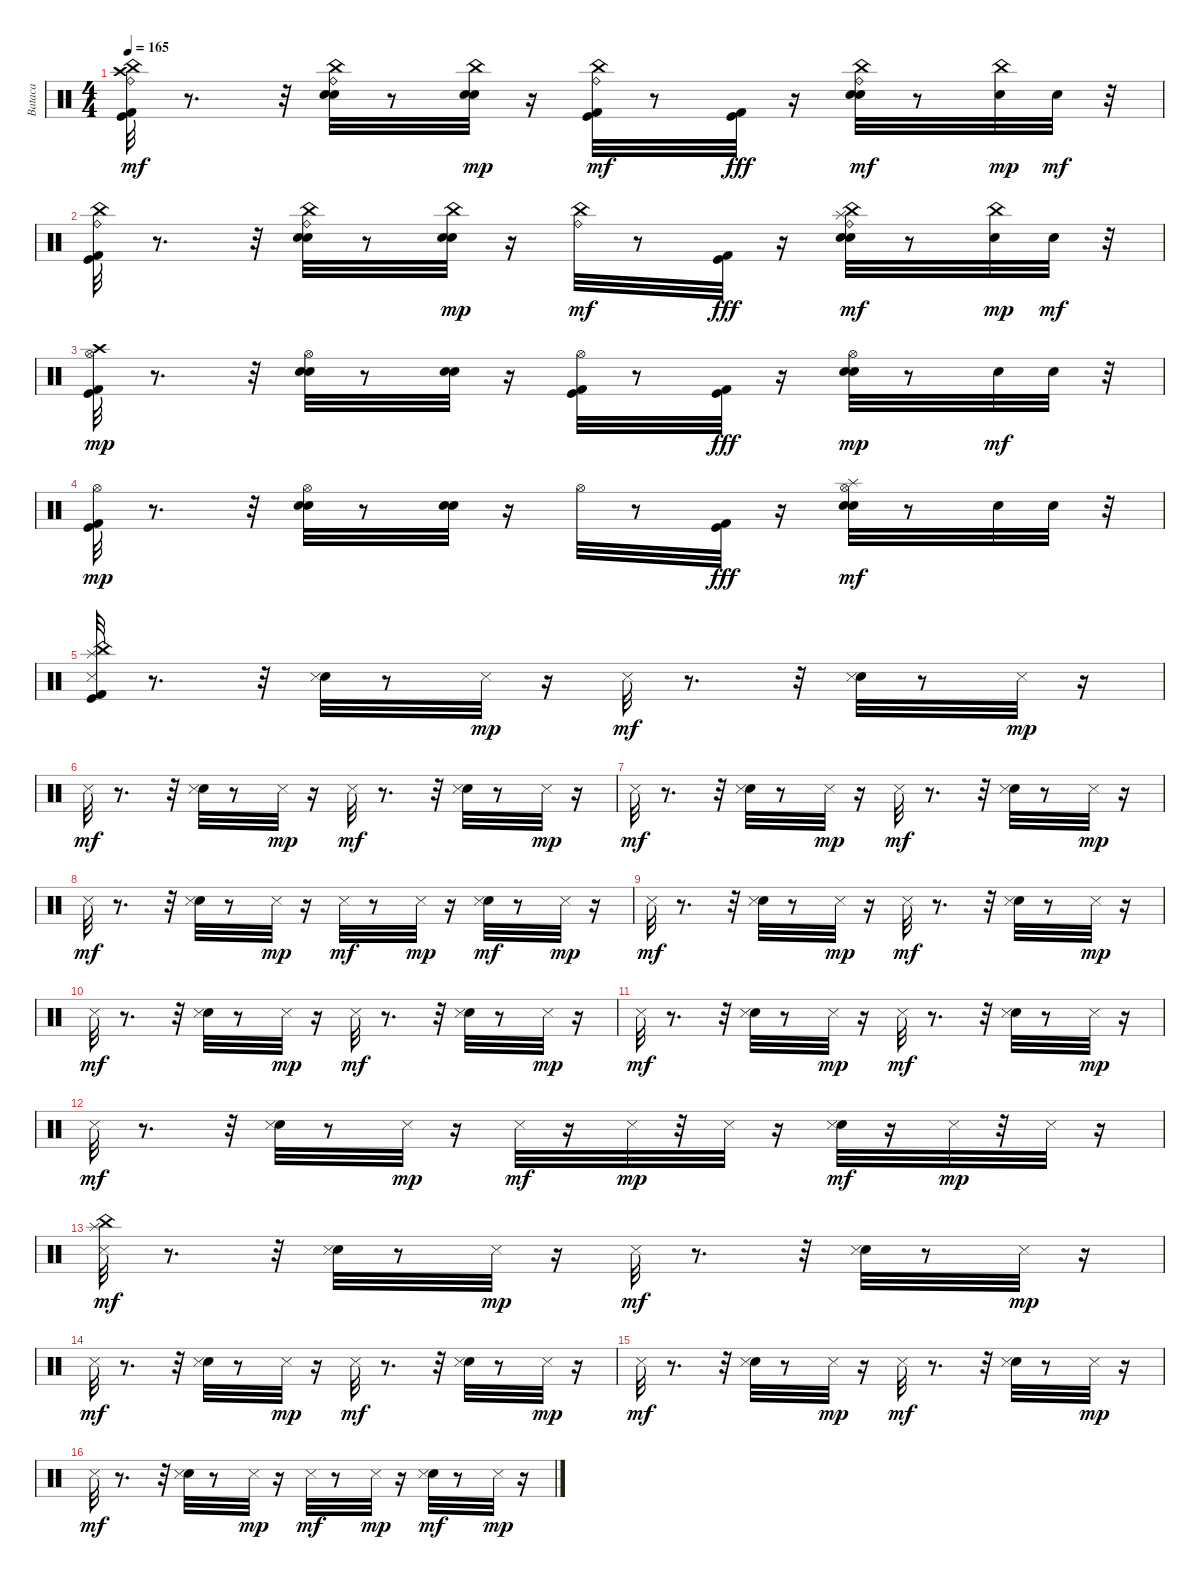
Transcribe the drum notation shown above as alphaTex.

\track ("Bataca" "Bataca") {instrument percussion}
\staff {score}
\articulation defaults
\ts (4 4)
\tempo 165
\clef neutral
\ks c
("Kick (hit) 2" "Kick (hit)" "China (hit)" "Ride (bell)" "Crash high (hit)").32{dy mf} r.8{d} r.32 ("Snare (hit) 2" "Hand Clap (hit)" "China (hit)" "Ride (bell)").32 r.8 ("Snare (hit) 2" "Hand Clap (hit)" "China (hit)").32{dy mp} r.16 ("Kick (hit) 2" "Kick (hit)" "China (hit)" "Ride (bell)").32{dy mf} r.8 ("Kick (hit) 2" "Kick (hit)").32{dy fff} r.16 ("Snare (hit) 2" "Hand Clap (hit)" "China (hit)" "Ride (bell)").32{dy mf} r.8 ("Snare (hit) 2" "China (hit)").32{dy mp} "Hand Clap (hit)".32{dy mf} r.32 |
("Kick (hit) 2" "Kick (hit)" "China (hit)" "Ride (bell)").32 r.8{d} r.32 ("Snare (hit) 2" "Hand Clap (hit)" "China (hit)" "Ride (bell)").32 r.8 ("Snare (hit) 2" "Hand Clap (hit)" "China (hit)").32{dy mp} r.16 ("China (hit)" "Ride (bell)").32{dy mf} r.8 ("Kick (hit) 2" "Kick (hit)").32{dy fff} r.16 ("Snare (hit) 2" "Hand Clap (hit)" "China (hit)" "Ride (bell)" "Splash (hit)").32{dy mf} r.8 ("Snare (hit) 2" "China (hit)").32{dy mp} "Hand Clap (hit)".32{dy mf} r.32 |
("Kick (hit) 2" "Kick (hit)" "Crash high (hit)" "Hi-Hat (open)").32{dy mp} r.8{d} r.32 ("Snare (hit) 2" "Hand Clap (hit)" "Hi-Hat (open)").32 r.8 ("Snare (hit) 2" "Hand Clap (hit)").32 r.16 ("Kick (hit) 2" "Kick (hit)" "Hi-Hat (open)").32 r.8 ("Kick (hit) 2" "Kick (hit)").32{dy fff} r.16 ("Snare (hit) 2" "Hand Clap (hit)" "Hi-Hat (open)").32{dy mp} r.8 "Snare (hit) 2".32{dy mf} "Hand Clap (hit)".32 r.32 |
("Kick (hit) 2" "Kick (hit)" "Hi-Hat (open)").32{dy mp} r.8{d} r.32 ("Snare (hit) 2" "Hand Clap (hit)" "Hi-Hat (open)").32 r.8 ("Snare (hit) 2" "Hand Clap (hit)").32 r.16 "Hi-Hat (open)".32 r.8 ("Kick (hit) 2" "Kick (hit)").32{dy fff} r.16 ("Snare (hit) 2" "Hand Clap (hit)" "Hi-Hat (open)" "Splash (hit)").32{dy mf} r.8 "Snare (hit) 2".32 "Hand Clap (hit)".32 r.32 |
("Kick (hit) 2" "Kick (hit)" "Splash (hit)" "China (hit)" "Snare (side stick) 3").32 r.8{d} r.32 ("Hand Clap (hit)" "Snare (side stick) 3").32 r.8 "Snare (side stick) 3".32{dy mp} r.16 "Snare (side stick) 3".32{dy mf} r.8{d} r.32 ("Hand Clap (hit)" "Snare (side stick) 3").32 r.8 "Snare (side stick) 3".32{dy mp} r.16 |
"Snare (side stick) 3".32{dy mf} r.8{d} r.32 ("Hand Clap (hit)" "Snare (side stick) 3").32 r.8 "Snare (side stick) 3".32{dy mp} r.16 "Snare (side stick) 3".32{dy mf} r.8{d} r.32 ("Hand Clap (hit)" "Snare (side stick) 3").32 r.8 "Snare (side stick) 3".32{dy mp} r.16 |
"Snare (side stick) 3".32{dy mf} r.8{d} r.32 ("Hand Clap (hit)" "Snare (side stick) 3").32 r.8 "Snare (side stick) 3".32{dy mp} r.16 "Snare (side stick) 3".32{dy mf} r.8{d} r.32 ("Hand Clap (hit)" "Snare (side stick) 3").32 r.8 "Snare (side stick) 3".32{dy mp} r.16 |
"Snare (side stick) 3".32{dy mf} r.8{d} r.32 ("Hand Clap (hit)" "Snare (side stick) 3").32 r.8 "Snare (side stick) 3".32{dy mp} r.16 "Snare (side stick) 3".32{dy mf} r.8 "Snare (side stick) 3".32{dy mp} r.16 ("Hand Clap (hit)" "Snare (side stick) 3").32{dy mf} r.8 "Snare (side stick) 3".32{dy mp} r.16 |
"Snare (side stick) 3".32{dy mf} r.8{d} r.32 ("Hand Clap (hit)" "Snare (side stick) 3").32 r.8 "Snare (side stick) 3".32{dy mp} r.16 "Snare (side stick) 3".32{dy mf} r.8{d} r.32 ("Hand Clap (hit)" "Snare (side stick) 3").32 r.8 "Snare (side stick) 3".32{dy mp} r.16 |
"Snare (side stick) 3".32{dy mf} r.8{d} r.32 ("Hand Clap (hit)" "Snare (side stick) 3").32 r.8 "Snare (side stick) 3".32{dy mp} r.16 "Snare (side stick) 3".32{dy mf} r.8{d} r.32 ("Hand Clap (hit)" "Snare (side stick) 3").32 r.8 "Snare (side stick) 3".32{dy mp} r.16 |
"Snare (side stick) 3".32{dy mf} r.8{d} r.32 ("Hand Clap (hit)" "Snare (side stick) 3").32 r.8 "Snare (side stick) 3".32{dy mp} r.16 "Snare (side stick) 3".32{dy mf} r.8{d} r.32 ("Hand Clap (hit)" "Snare (side stick) 3").32 r.8 "Snare (side stick) 3".32{dy mp} r.16 |
"Snare (side stick) 3".32{dy mf} r.8{d} r.32 ("Hand Clap (hit)" "Snare (side stick) 3").32 r.8 "Snare (side stick) 3".32{dy mp} r.16 "Snare (side stick) 3".32{dy mf} r.16 "Snare (side stick) 3".32{dy mp} r.32 "Snare (side stick) 3".32 r.16 ("Hand Clap (hit)" "Snare (side stick) 3").32{dy mf} r.16 "Snare (side stick) 3".32{dy mp} r.32 "Snare (side stick) 3".32 r.16 |
("Splash (hit)" "China (hit)" "Snare (side stick) 3").32{dy mf} r.8{d} r.32 ("Hand Clap (hit)" "Snare (side stick) 3").32 r.8 "Snare (side stick) 3".32{dy mp} r.16 "Snare (side stick) 3".32{dy mf} r.8{d} r.32 ("Hand Clap (hit)" "Snare (side stick) 3").32 r.8 "Snare (side stick) 3".32{dy mp} r.16 |
"Snare (side stick) 3".32{dy mf} r.8{d} r.32 ("Hand Clap (hit)" "Snare (side stick) 3").32 r.8 "Snare (side stick) 3".32{dy mp} r.16 "Snare (side stick) 3".32{dy mf} r.8{d} r.32 ("Hand Clap (hit)" "Snare (side stick) 3").32 r.8 "Snare (side stick) 3".32{dy mp} r.16 |
"Snare (side stick) 3".32{dy mf} r.8{d} r.32 ("Hand Clap (hit)" "Snare (side stick) 3").32 r.8 "Snare (side stick) 3".32{dy mp} r.16 "Snare (side stick) 3".32{dy mf} r.8{d} r.32 ("Hand Clap (hit)" "Snare (side stick) 3").32 r.8 "Snare (side stick) 3".32{dy mp} r.16 |
"Snare (side stick) 3".32{dy mf} r.8{d} r.32 ("Hand Clap (hit)" "Snare (side stick) 3").32 r.8 "Snare (side stick) 3".32{dy mp} r.16 "Snare (side stick) 3".32{dy mf} r.8 "Snare (side stick) 3".32{dy mp} r.16 ("Hand Clap (hit)" "Snare (side stick) 3").32{dy mf} r.8 "Snare (side stick) 3".32{dy mp} r.16
